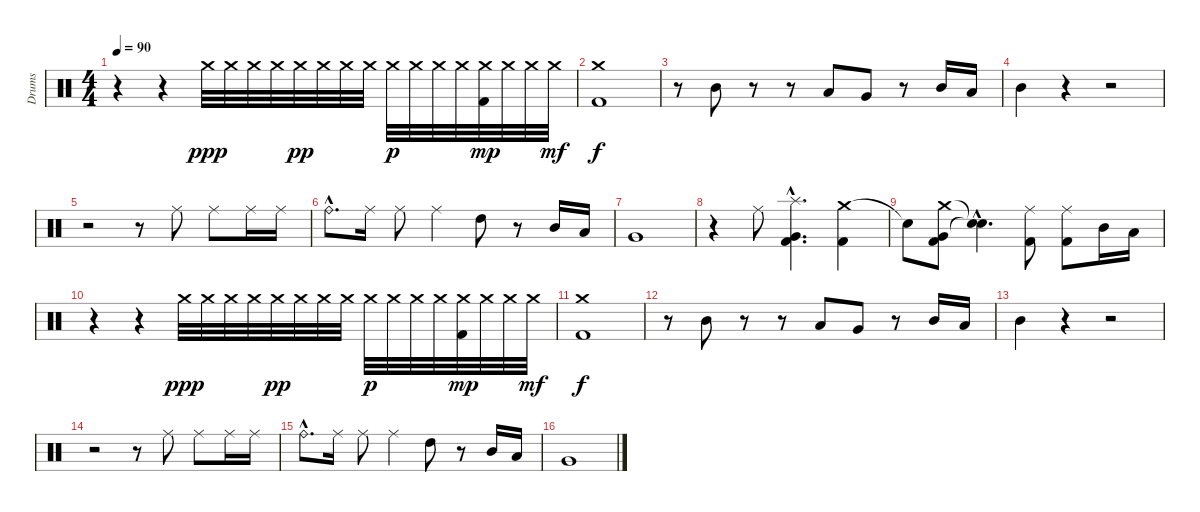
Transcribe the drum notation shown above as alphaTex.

\track ("Drums" "Drums") {instrument percussion}
\staff {score}
\articulation defaults
\ts (4 4)
\tempo 90
\clef neutral
\ks c
r.4{dy f} r.4 "Crash medium (hit)".32{dy ppp} "Crash medium (hit)".32 "Crash medium (hit)".32 "Crash medium (hit)".32 "Crash medium (hit)".32{dy pp} "Crash medium (hit)".32 "Crash medium (hit)".32 "Crash medium (hit)".32 "Crash medium (hit)".32{dy p} "Crash medium (hit)".32 "Crash medium (hit)".32 "Crash medium (hit)".32 ("Crash medium (hit)" "Kick (hit) 2").32{dy mp} "Crash medium (hit)".32 "Crash medium (hit)".32 "Crash medium (hit)".32{dy mf} |
("Crash medium (hit)" "Kick (hit) 2").1{dy f} |
r.8 "Mid Tom (hit)".8 r.8 r.8 "Low Tom (hit)".8 "Very Low Tom (hit)".8 r.8 "Mid Tom (hit)".16 "Low Tom (hit)".16 |
"Mid Tom (hit)".4 r.4 r.2 |
r.2 r.8 "Ride (middle)".8 "Ride (middle)".8 "Ride (middle)".16 "Ride (middle)".16 |
"Ride (bell)"{hac}.8{d} "Ride (middle)".16 "Ride (middle)".8 "Ride (middle)".4 "High Tom (hit)".8 r.8 "Mid Tom (hit)".16 "Low Tom (hit)".16 |
"Very Low Tom (hit)".1 |
r.4 "Ride (middle)".8 ("Splash (hit)"{hac} "Very Low Tom (hit)"{hac} "Kick (hit) 2"{hac}).4{d} ("Crash medium (hit)" "Kick (hit) 2").4 |
"Snare (hit)"{t}.8 ("Crash medium (hit)" "Very Low Tom (hit)" "Kick (hit) 2").8 ("Snare (hit)"{hac t} "Snare (hit)"{hac t}).4{d} ("Ride (middle)" "Kick (hit) 2").8 ("Ride (middle)" "Kick (hit) 2").8 "Mid Tom (hit)".16 "Low Tom (hit)".16 |
r.4 r.4 "Crash medium (hit)".32{dy ppp} "Crash medium (hit)".32 "Crash medium (hit)".32 "Crash medium (hit)".32 "Crash medium (hit)".32{dy pp} "Crash medium (hit)".32 "Crash medium (hit)".32 "Crash medium (hit)".32 "Crash medium (hit)".32{dy p} "Crash medium (hit)".32 "Crash medium (hit)".32 "Crash medium (hit)".32 ("Crash medium (hit)" "Kick (hit) 2").32{dy mp} "Crash medium (hit)".32 "Crash medium (hit)".32 "Crash medium (hit)".32{dy mf} |
("Crash medium (hit)" "Kick (hit) 2").1{dy f} |
r.8 "Mid Tom (hit)".8 r.8 r.8 "Low Tom (hit)".8 "Very Low Tom (hit)".8 r.8 "Mid Tom (hit)".16 "Low Tom (hit)".16 |
"Mid Tom (hit)".4 r.4 r.2 |
r.2 r.8 "Ride (middle)".8 "Ride (middle)".8 "Ride (middle)".16 "Ride (middle)".16 |
"Ride (bell)"{hac}.8{d} "Ride (middle)".16 "Ride (middle)".8 "Ride (middle)".4 "High Tom (hit)".8 r.8 "Mid Tom (hit)".16 "Low Tom (hit)".16 |
"Very Low Tom (hit)".1
